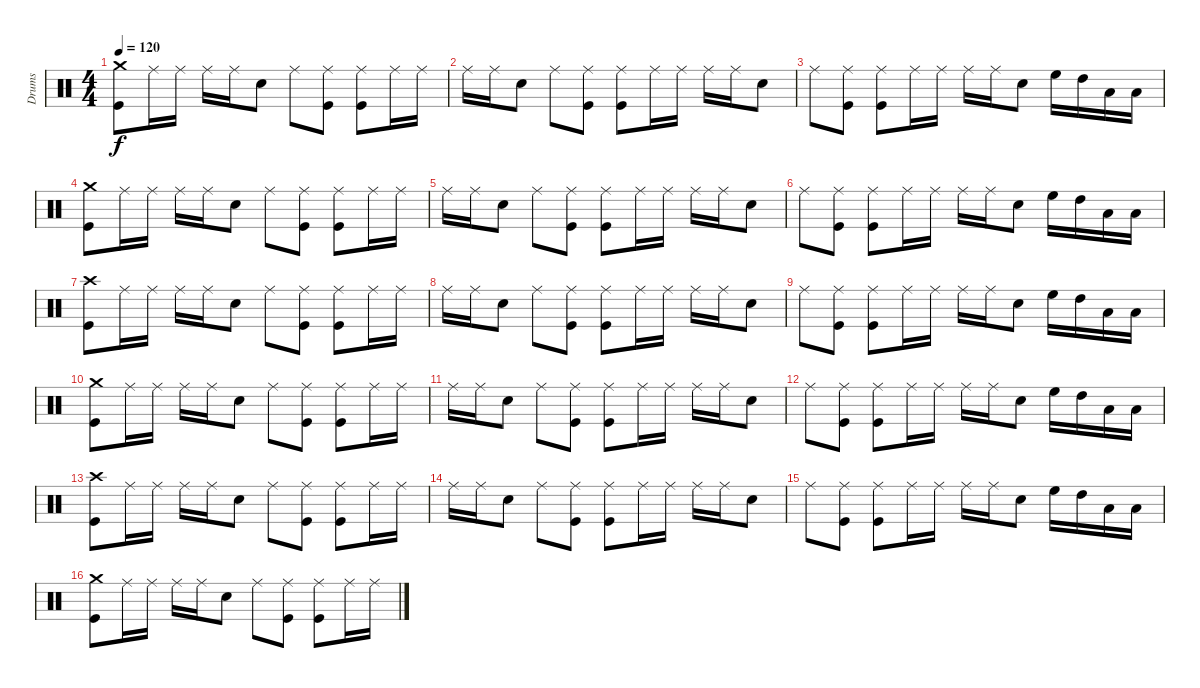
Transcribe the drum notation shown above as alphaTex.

\track ("Drums" "Drums") {instrument percussion}
\staff {score}
\articulation defaults
\ts (4 4)
\tempo 120
\clef neutral
\ks c
("Crash medium (hit)" "Kick (hit)").8{dy f} "Ride (middle)".16 "Ride (middle)".16 "Ride (middle)".16 "Ride (middle)".16 "Electric Snare (hit)".8 "Ride (middle)".8 ("Ride (middle)" "Kick (hit)").8 ("Ride (middle)" "Kick (hit)").8 "Ride (middle)".16 "Ride (middle)".16 |
"Ride (middle)".16 "Ride (middle)".16 "Electric Snare (hit)".8 "Ride (middle)".8 ("Ride (middle)" "Kick (hit)").8 ("Ride (middle)" "Kick (hit)").8 "Ride (middle)".16 "Ride (middle)".16 "Ride (middle)".16 "Ride (middle)".16 "Electric Snare (hit)".8 |
"Ride (middle)".8 ("Ride (middle)" "Kick (hit)").8 ("Ride (middle)" "Kick (hit)").8 "Ride (middle)".16 "Ride (middle)".16 "Ride (middle)".16 "Ride (middle)".16 "Electric Snare (hit)".8 "High Floor Tom (hit)".16 "High Tom (hit)".16 "Low Tom (hit)".16 "Low Floor Tom (hit)".16 |
("Crash medium (hit)" "Kick (hit)").8 "Ride (middle)".16 "Ride (middle)".16 "Ride (middle)".16 "Ride (middle)".16 "Electric Snare (hit)".8 "Ride (middle)".8 ("Ride (middle)" "Kick (hit)").8 ("Ride (middle)" "Kick (hit)").8 "Ride (middle)".16 "Ride (middle)".16 |
"Ride (middle)".16 "Ride (middle)".16 "Electric Snare (hit)".8 "Ride (middle)".8 ("Ride (middle)" "Kick (hit)").8 ("Ride (middle)" "Kick (hit)").8 "Ride (middle)".16 "Ride (middle)".16 "Ride (middle)".16 "Ride (middle)".16 "Electric Snare (hit)".8 |
"Ride (middle)".8 ("Ride (middle)" "Kick (hit)").8 ("Ride (middle)" "Kick (hit)").8 "Ride (middle)".16 "Ride (middle)".16 "Ride (middle)".16 "Ride (middle)".16 "Electric Snare (hit)".8 "High Floor Tom (hit)".16 "High Tom (hit)".16 "Low Tom (hit)".16 "Low Floor Tom (hit)".16 |
("Crash high (hit)" "Kick (hit)").8 "Ride (middle)".16 "Ride (middle)".16 "Ride (middle)".16 "Ride (middle)".16 "Electric Snare (hit)".8 "Ride (middle)".8 ("Ride (middle)" "Kick (hit)").8 ("Ride (middle)" "Kick (hit)").8 "Ride (middle)".16 "Ride (middle)".16 |
"Ride (middle)".16 "Ride (middle)".16 "Electric Snare (hit)".8 "Ride (middle)".8 ("Ride (middle)" "Kick (hit)").8 ("Ride (middle)" "Kick (hit)").8 "Ride (middle)".16 "Ride (middle)".16 "Ride (middle)".16 "Ride (middle)".16 "Electric Snare (hit)".8 |
"Ride (middle)".8 ("Ride (middle)" "Kick (hit)").8 ("Ride (middle)" "Kick (hit)").8 "Ride (middle)".16 "Ride (middle)".16 "Ride (middle)".16 "Ride (middle)".16 "Electric Snare (hit)".8 "High Floor Tom (hit)".16 "High Tom (hit)".16 "Low Tom (hit)".16 "Low Floor Tom (hit)".16 |
("Crash medium (hit)" "Kick (hit)").8 "Ride (middle)".16 "Ride (middle)".16 "Ride (middle)".16 "Ride (middle)".16 "Electric Snare (hit)".8 "Ride (middle)".8 ("Ride (middle)" "Kick (hit)").8 ("Ride (middle)" "Kick (hit)").8 "Ride (middle)".16 "Ride (middle)".16 |
"Ride (middle)".16 "Ride (middle)".16 "Electric Snare (hit)".8 "Ride (middle)".8 ("Ride (middle)" "Kick (hit)").8 ("Ride (middle)" "Kick (hit)").8 "Ride (middle)".16 "Ride (middle)".16 "Ride (middle)".16 "Ride (middle)".16 "Electric Snare (hit)".8 |
"Ride (middle)".8 ("Ride (middle)" "Kick (hit)").8 ("Ride (middle)" "Kick (hit)").8 "Ride (middle)".16 "Ride (middle)".16 "Ride (middle)".16 "Ride (middle)".16 "Electric Snare (hit)".8 "High Floor Tom (hit)".16 "High Tom (hit)".16 "Low Tom (hit)".16 "Low Floor Tom (hit)".16 |
("Crash high (hit)" "Kick (hit)").8 "Ride (middle)".16 "Ride (middle)".16 "Ride (middle)".16 "Ride (middle)".16 "Electric Snare (hit)".8 "Ride (middle)".8 ("Ride (middle)" "Kick (hit)").8 ("Ride (middle)" "Kick (hit)").8 "Ride (middle)".16 "Ride (middle)".16 |
"Ride (middle)".16 "Ride (middle)".16 "Electric Snare (hit)".8 "Ride (middle)".8 ("Ride (middle)" "Kick (hit)").8 ("Ride (middle)" "Kick (hit)").8 "Ride (middle)".16 "Ride (middle)".16 "Ride (middle)".16 "Ride (middle)".16 "Electric Snare (hit)".8 |
"Ride (middle)".8 ("Ride (middle)" "Kick (hit)").8 ("Ride (middle)" "Kick (hit)").8 "Ride (middle)".16 "Ride (middle)".16 "Ride (middle)".16 "Ride (middle)".16 "Electric Snare (hit)".8 "High Floor Tom (hit)".16 "High Tom (hit)".16 "Low Tom (hit)".16 "Low Floor Tom (hit)".16 |
("Crash medium (hit)" "Kick (hit)").8 "Ride (middle)".16 "Ride (middle)".16 "Ride (middle)".16 "Ride (middle)".16 "Electric Snare (hit)".8 "Ride (middle)".8 ("Ride (middle)" "Kick (hit)").8 ("Ride (middle)" "Kick (hit)").8 "Ride (middle)".16 "Ride (middle)".16
